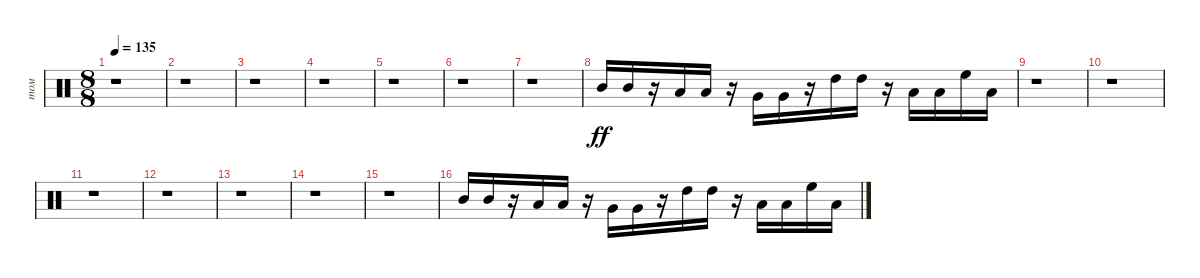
\track ("том" "том") {instrument percussion}
\staff {score}
\articulation defaults
\ts (8 8)
\tempo 135
\clef neutral
\ks c
r.1{dy ff} |
r.1 |
r.1 |
r.1 |
r.1 |
r.1 |
r.1 |
"Mid Tom (hit)".16 "Mid Tom (hit)".16 r.16 "Low Tom (hit)".16 "Low Tom (hit)".16 r.16 "Very Low Tom (hit)".16 "Very Low Tom (hit)".16 r.16 "High Tom (hit)".16 "High Tom (hit)".16 r.16 "Low Floor Tom (hit)".16 "Low Floor Tom (hit)".16 "High Floor Tom (hit)".16 "Low Floor Tom (hit)".16 |
r.1 |
r.1 |
r.1 |
r.1 |
r.1 |
r.1 |
r.1 |
"Mid Tom (hit)".16 "Mid Tom (hit)".16 r.16 "Low Tom (hit)".16 "Low Tom (hit)".16 r.16 "Very Low Tom (hit)".16 "Very Low Tom (hit)".16 r.16 "High Tom (hit)".16 "High Tom (hit)".16 r.16 "Low Floor Tom (hit)".16 "Low Floor Tom (hit)".16 "High Floor Tom (hit)".16 "Low Floor Tom (hit)".16
